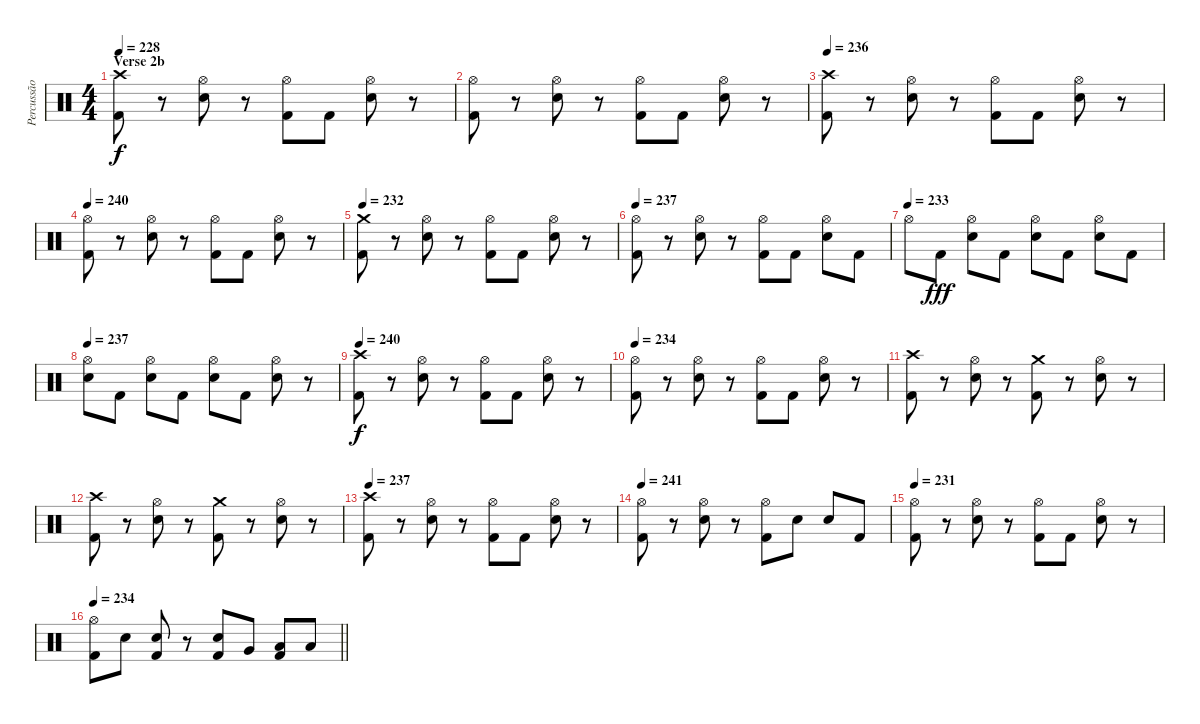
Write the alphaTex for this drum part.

\track ("Percussão" "Percussão") {instrument percussion}
\staff {score}
\articulation defaults
\ts (4 4)
\section ("" "Verse 2b")
\tempo 228
\clef neutral
\ks c
("Crash high (hit)" "Kick (hit) 2").8{dy f} r.8 ("Hi-Hat (open)" "Electric Snare (hit)").8 r.8 ("Hi-Hat (open)" "Kick (hit) 2").8 "Kick (hit) 2".8 ("Hi-Hat (open)" "Electric Snare (hit)").8 r.8 |
("Hi-Hat (open)" "Kick (hit) 2").8 r.8 ("Hi-Hat (open)" "Electric Snare (hit)").8 r.8 ("Hi-Hat (open)" "Kick (hit) 2").8 "Kick (hit) 2".8 ("Hi-Hat (open)" "Electric Snare (hit)").8 r.8 |
\tempo 236
("Crash high (hit)" "Kick (hit) 2").8 r.8 ("Hi-Hat (open)" "Electric Snare (hit)").8 r.8 ("Hi-Hat (open)" "Kick (hit) 2").8 "Kick (hit) 2".8 ("Hi-Hat (open)" "Electric Snare (hit)").8 r.8 |
\tempo 240
("Hi-Hat (open)" "Kick (hit) 2").8 r.8 ("Hi-Hat (open)" "Electric Snare (hit)").8 r.8 ("Hi-Hat (open)" "Kick (hit) 2").8 "Kick (hit) 2".8 ("Hi-Hat (open)" "Electric Snare (hit)").8 r.8 |
\tempo 232
("Crash medium (hit)" "Kick (hit) 2").8 r.8 ("Hi-Hat (open)" "Electric Snare (hit)").8 r.8 ("Hi-Hat (open)" "Kick (hit) 2").8 "Kick (hit) 2".8 ("Hi-Hat (open)" "Electric Snare (hit)").8 r.8 |
\tempo 237
("Hi-Hat (open)" "Kick (hit) 2").8 r.8 ("Hi-Hat (open)" "Electric Snare (hit)").8 r.8 ("Hi-Hat (open)" "Kick (hit) 2").8 "Kick (hit) 2".8 ("Hi-Hat (open)" "Electric Snare (hit)").8 "Kick (hit) 2".8 |
\tempo (233)
"Hi-Hat (open)".8 "Kick (hit) 2".8{dy fff} ("Hi-Hat (open)" "Electric Snare (hit)").8 "Kick (hit) 2".8 ("Hi-Hat (open)" "Electric Snare (hit)").8 "Kick (hit) 2".8 ("Hi-Hat (open)" "Electric Snare (hit)").8 "Kick (hit) 2".8 |
\tempo 237
("Hi-Hat (open)" "Electric Snare (hit)").8 "Kick (hit) 2".8 ("Hi-Hat (open)" "Electric Snare (hit)").8 "Kick (hit) 2".8 ("Hi-Hat (open)" "Electric Snare (hit)").8 "Kick (hit) 2".8 ("Hi-Hat (open)" "Electric Snare (hit)").8 r.8 |
\tempo 240
("Crash high (hit)" "Kick (hit) 2").8{dy f} r.8 ("Hi-Hat (open)" "Electric Snare (hit)").8 r.8 ("Hi-Hat (open)" "Kick (hit) 2").8 "Kick (hit) 2".8 ("Hi-Hat (open)" "Electric Snare (hit)").8 r.8 |
\tempo 234
("Hi-Hat (open)" "Kick (hit) 2").8 r.8 ("Hi-Hat (open)" "Electric Snare (hit)").8 r.8 ("Hi-Hat (open)" "Kick (hit) 2").8 "Kick (hit) 2".8 ("Hi-Hat (open)" "Electric Snare (hit)").8 r.8 |
("Crash high (hit)" "Kick (hit) 2").8 r.8 ("Hi-Hat (open)" "Electric Snare (hit)").8 r.8 ("Crash medium (hit)" "Kick (hit) 2").8 r.8 ("Hi-Hat (open)" "Electric Snare (hit)").8 r.8 |
("Crash high (hit)" "Kick (hit) 2").8 r.8 ("Hi-Hat (open)" "Electric Snare (hit)").8 r.8 ("Crash medium (hit)" "Kick (hit) 2").8 r.8 ("Hi-Hat (open)" "Electric Snare (hit)").8 r.8 |
\tempo 237
("Crash high (hit)" "Kick (hit) 2").8 r.8 ("Hi-Hat (open)" "Electric Snare (hit)").8 r.8 ("Hi-Hat (open)" "Kick (hit) 2").8 "Kick (hit) 2".8 ("Hi-Hat (open)" "Electric Snare (hit)").8 r.8 |
\tempo 241
("Hi-Hat (open)" "Kick (hit) 2").8 r.8 ("Hi-Hat (open)" "Electric Snare (hit)").8 r.8 ("Hi-Hat (open)" "Kick (hit) 2").8 "Electric Snare (hit)".8 "Electric Snare (hit)".8 "Kick (hit) 2".8 |
\tempo 231
("Hi-Hat (open)" "Kick (hit) 2").8 r.8 ("Hi-Hat (open)" "Electric Snare (hit)").8 r.8 ("Hi-Hat (open)" "Kick (hit) 2").8 "Kick (hit) 2".8 ("Hi-Hat (open)" "Electric Snare (hit)").8 r.8 |
\tempo 234
\barLineRight lightlight
("Hi-Hat (open)" "Kick (hit) 2").8 "Electric Snare (hit)".8 ("Electric Snare (hit)" "Kick (hit) 2").8 r.8 ("Electric Snare (hit)" "Kick (hit) 2").8 "Very Low Tom (hit)".8 ("Low Tom (hit)" "Kick (hit) 2").8 "Low Tom (hit)".8
